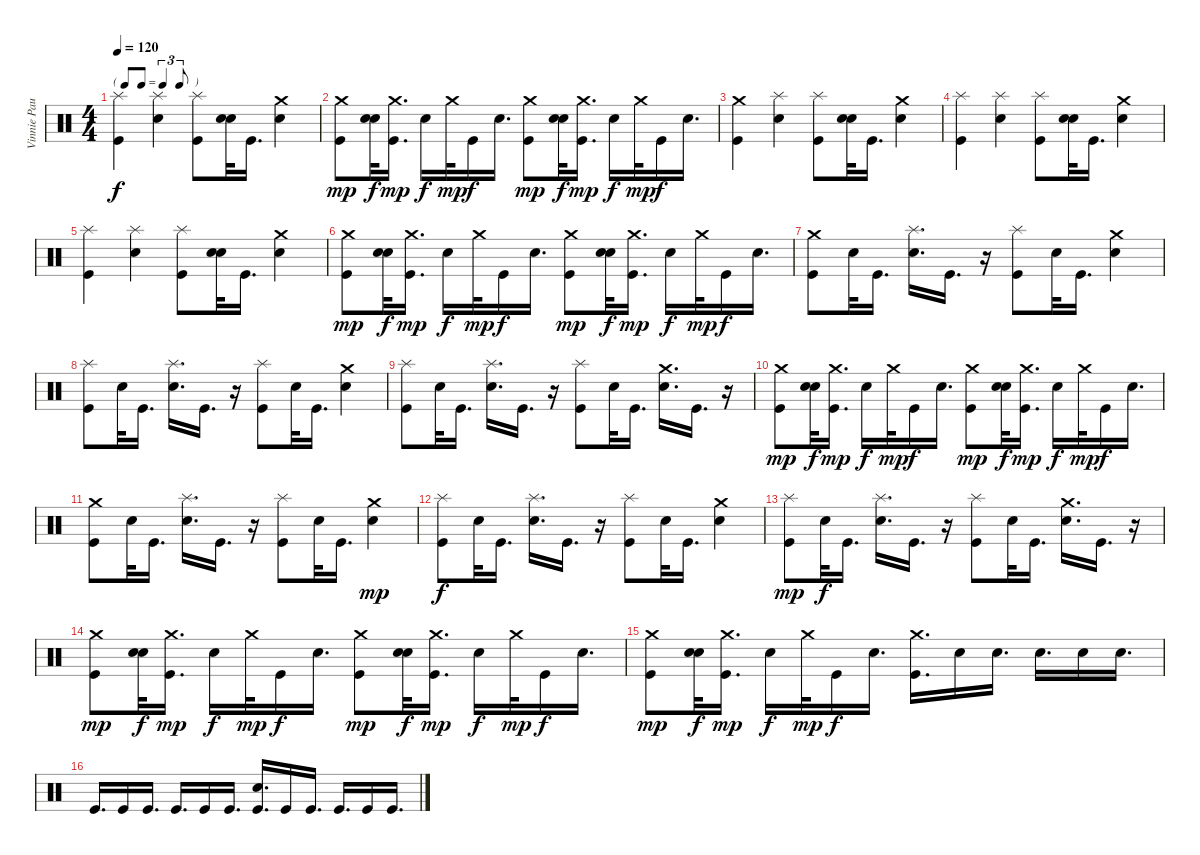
\track ("Vinnie Paul" "Vinnie Pau") {instrument percussion}
\staff {score}
\articulation defaults
\ts (4 4)
\tf triplet8th
\tempo 120
\clef neutral
\ks c
("Kick (hit)" "Splash (hit)").4{dy f} ("Snare (hit) 2" "Splash (hit)").4 ("Kick (hit)" "Splash (hit)").8 ("Snare (hit)" "Snare (hit)").32 "Kick (hit)".16{d} ("Snare (hit) 2" "Crash medium (hit)").4 |
("Crash medium (hit)" "Kick (hit)").8{dy mp} ("Snare (hit)" "Snare (hit)").32{dy f} ("Crash medium (hit)" "Kick (hit)").16{d dy mp} "Snare (hit) 2".16{dy f} "Crash medium (hit)".32{dy mp} "Kick (hit)".16{dy f} "Snare (hit) 2".16{d} ("Crash medium (hit)" "Kick (hit)").8{dy mp} ("Snare (hit)" "Snare (hit)").32{dy f} ("Crash medium (hit)" "Kick (hit)").16{d dy mp} "Snare (hit) 2".16{dy f} "Crash medium (hit)".32{dy mp} "Kick (hit)".16{dy f} "Snare (hit) 2".16{d} |
("Kick (hit)" "Crash medium (hit)").4 ("Snare (hit) 2" "Splash (hit)").4 ("Kick (hit)" "Splash (hit)").8 ("Snare (hit)" "Snare (hit)").32 "Kick (hit)".16{d} ("Snare (hit) 2" "Crash medium (hit)").4 |
("Kick (hit)" "Splash (hit)").4 ("Snare (hit) 2" "Splash (hit)").4 ("Kick (hit)" "Splash (hit)").8 ("Snare (hit)" "Snare (hit)").32 "Kick (hit)".16{d} ("Snare (hit) 2" "Crash medium (hit)").4 |
("Kick (hit)" "Splash (hit)").4 ("Snare (hit) 2" "Splash (hit)").4 ("Kick (hit)" "Splash (hit)").8 ("Snare (hit)" "Snare (hit)").32 "Kick (hit)".16{d} ("Snare (hit) 2" "Crash medium (hit)").4 |
("Crash medium (hit)" "Kick (hit)").8{dy mp} ("Snare (hit)" "Snare (hit)").32{dy f} ("Crash medium (hit)" "Kick (hit)").16{d dy mp} "Snare (hit) 2".16{dy f} "Crash medium (hit)".32{dy mp} "Kick (hit)".16{dy f} "Snare (hit) 2".16{d} ("Crash medium (hit)" "Kick (hit)").8{dy mp} ("Snare (hit)" "Snare (hit)").32{dy f} ("Crash medium (hit)" "Kick (hit)").16{d dy mp} "Snare (hit) 2".16{dy f} "Crash medium (hit)".32{dy mp} "Kick (hit)".16{dy f} "Snare (hit) 2".16{d} |
("Kick (hit)" "Crash medium (hit)").8 "Snare (hit)".32 "Kick (hit)".16{d} ("Snare (hit) 2" "Splash (hit)").16{d} "Kick (hit)".16{d} r.16 ("Kick (hit)" "Splash (hit)").8 "Snare (hit)".32 "Kick (hit)".16{d} ("Snare (hit) 2" "Crash medium (hit)").4 |
("Kick (hit)" "Splash (hit)").8 "Snare (hit)".32 "Kick (hit)".16{d} ("Snare (hit) 2" "Splash (hit)").16{d} "Kick (hit)".16{d} r.16 ("Kick (hit)" "Splash (hit)").8 "Snare (hit)".32 "Kick (hit)".16{d} ("Snare (hit) 2" "Crash medium (hit)").4 |
("Kick (hit)" "Splash (hit)").8 "Snare (hit)".32 "Kick (hit)".16{d} ("Snare (hit) 2" "Splash (hit)").16{d} "Kick (hit)".16{d} r.16 ("Kick (hit)" "Splash (hit)").8 "Snare (hit)".32 "Kick (hit)".16{d} ("Snare (hit) 2" "Crash medium (hit)").16{d} "Kick (hit)".16{d} r.16 |
("Crash medium (hit)" "Kick (hit)").8{dy mp} ("Snare (hit)" "Snare (hit)").32{dy f} ("Crash medium (hit)" "Kick (hit)").16{d dy mp} "Snare (hit) 2".16{dy f} "Crash medium (hit)".32{dy mp} "Kick (hit)".16{dy f} "Snare (hit) 2".16{d} ("Crash medium (hit)" "Kick (hit)").8{dy mp} ("Snare (hit)" "Snare (hit)").32{dy f} ("Crash medium (hit)" "Kick (hit)").16{d dy mp} "Snare (hit) 2".16{dy f} "Crash medium (hit)".32{dy mp} "Kick (hit)".16{dy f} "Snare (hit) 2".16{d} |
("Kick (hit)" "Crash medium (hit)").8 "Snare (hit)".32 "Kick (hit)".16{d} ("Snare (hit) 2" "Splash (hit)").16{d} "Kick (hit)".16{d} r.16 ("Kick (hit)" "Splash (hit)").8 "Snare (hit)".32 "Kick (hit)".16{d} ("Crash medium (hit)" "Snare (hit) 2").4{dy mp} |
("Kick (hit)" "Splash (hit)").8{dy f} "Snare (hit)".32 "Kick (hit)".16{d} ("Snare (hit) 2" "Splash (hit)").16{d} "Kick (hit)".16{d} r.16 ("Kick (hit)" "Splash (hit)").8 "Snare (hit)".32 "Kick (hit)".16{d} ("Snare (hit) 2" "Crash medium (hit)").4 |
("Splash (hit)" "Kick (hit)").8{dy mp} "Snare (hit)".32{dy f} "Kick (hit)".16{d} ("Snare (hit) 2" "Splash (hit)").16{d} "Kick (hit)".16{d} r.16 ("Kick (hit)" "Splash (hit)").8 "Snare (hit)".32 "Kick (hit)".16{d} ("Snare (hit) 2" "Crash medium (hit)").16{d} "Kick (hit)".16{d} r.16 |
("Crash medium (hit)" "Kick (hit)").8{dy mp} ("Snare (hit)" "Snare (hit)").32{dy f} ("Crash medium (hit)" "Kick (hit)").16{d dy mp} "Snare (hit) 2".16{dy f} "Crash medium (hit)".32{dy mp} "Kick (hit)".16{dy f} "Snare (hit) 2".16{d} ("Crash medium (hit)" "Kick (hit)").8{dy mp} ("Snare (hit)" "Snare (hit)").32{dy f} ("Crash medium (hit)" "Kick (hit)").16{d dy mp} "Snare (hit) 2".16{dy f} "Crash medium (hit)".32{dy mp} "Kick (hit)".16{dy f} "Snare (hit) 2".16{d} |
("Crash medium (hit)" "Kick (hit)").8{dy mp} ("Snare (hit)" "Snare (hit)").32{dy f} ("Crash medium (hit)" "Kick (hit)").16{d dy mp} "Snare (hit) 2".16{dy f} "Crash medium (hit)".32{dy mp} "Kick (hit)".16{dy f} "Snare (hit) 2".16{d} ("Kick (hit)" "Crash medium (hit)").16{d} "Snare (hit) 2".16 "Snare (hit) 2".16{d} "Snare (hit) 2".16{d} "Snare (hit) 2".16 "Snare (hit) 2".16{d} |
"Kick (hit)".16{d} "Kick (hit)".16 "Kick (hit)".16{d} "Kick (hit)".16{d} "Kick (hit)".16 "Kick (hit)".16{d} ("Snare (hit) 2" "Kick (hit)").16{d} "Kick (hit)".16 "Kick (hit)".16{d} "Kick (hit)".16{d} "Kick (hit)".16 "Kick (hit)".16{d}
